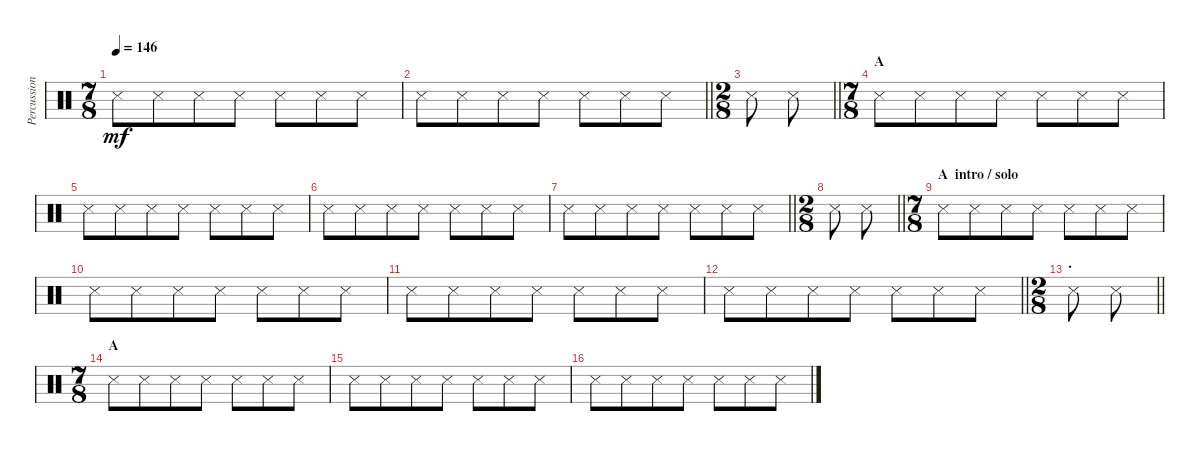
\track ("Percussion" "Percussion") {instrument percussion}
\staff {score}
\articulation defaults
\ts (7 8)
\tempo 146
\clef neutral
\ks c "Metronome (hit)".8{dy mf} "Metronome (hit)".8 "Metronome (hit)".8 "Metronome (hit)".8 "Metronome (hit)".8 "Metronome (hit)".8 "Metronome (hit)".8
|
\barLineRight lightlight "Metronome (hit)".8 "Metronome (hit)".8 "Metronome (hit)".8 "Metronome (hit)".8 "Metronome (hit)".8 "Metronome (hit)".8 "Metronome (hit)".8
|
\ts (2 8)
\barLineRight lightlight "Metronome (hit)".8 "Metronome (hit)".8
|
\ts (7 8)
\section ("" "A")
"Metronome (hit)".8 "Metronome (hit)".8 "Metronome (hit)".8 "Metronome (hit)".8 "Metronome (hit)".8 "Metronome (hit)".8 "Metronome (hit)".8 |
"Metronome (hit)".8 "Metronome (hit)".8 "Metronome (hit)".8 "Metronome (hit)".8 "Metronome (hit)".8 "Metronome (hit)".8 "Metronome (hit)".8 |
"Metronome (hit)".8 "Metronome (hit)".8 "Metronome (hit)".8 "Metronome (hit)".8 "Metronome (hit)".8 "Metronome (hit)".8 "Metronome (hit)".8 |
\barLineRight lightlight "Metronome (hit)".8 "Metronome (hit)".8 "Metronome (hit)".8 "Metronome (hit)".8 "Metronome (hit)".8 "Metronome (hit)".8 "Metronome (hit)".8
|
\ts (2 8)
\barLineRight lightlight "Metronome (hit)".8 "Metronome (hit)".8
|
\ts (7 8)
\section ("" "A  intro / solo")
"Metronome (hit)".8 "Metronome (hit)".8 "Metronome (hit)".8 "Metronome (hit)".8 "Metronome (hit)".8 "Metronome (hit)".8 "Metronome (hit)".8 |
"Metronome (hit)".8 "Metronome (hit)".8 "Metronome (hit)".8 "Metronome (hit)".8 "Metronome (hit)".8 "Metronome (hit)".8 "Metronome (hit)".8 |
"Metronome (hit)".8 "Metronome (hit)".8 "Metronome (hit)".8 "Metronome (hit)".8 "Metronome (hit)".8 "Metronome (hit)".8 "Metronome (hit)".8 |
\barLineRight lightlight "Metronome (hit)".8 "Metronome (hit)".8 "Metronome (hit)".8 "Metronome (hit)".8 "Metronome (hit)".8 "Metronome (hit)".8 "Metronome (hit)".8
|
\ts (2 8)
\section ("" ".")
\barLineRight lightlight "Metronome (hit)".8 "Metronome (hit)".8
|
\ts (7 8)
\section ("" "A")
"Metronome (hit)".8 "Metronome (hit)".8 "Metronome (hit)".8 "Metronome (hit)".8 "Metronome (hit)".8 "Metronome (hit)".8 "Metronome (hit)".8 |
"Metronome (hit)".8 "Metronome (hit)".8 "Metronome (hit)".8 "Metronome (hit)".8 "Metronome (hit)".8 "Metronome (hit)".8 "Metronome (hit)".8 |
"Metronome (hit)".8 "Metronome (hit)".8 "Metronome (hit)".8 "Metronome (hit)".8 "Metronome (hit)".8 "Metronome (hit)".8 "Metronome (hit)".8
